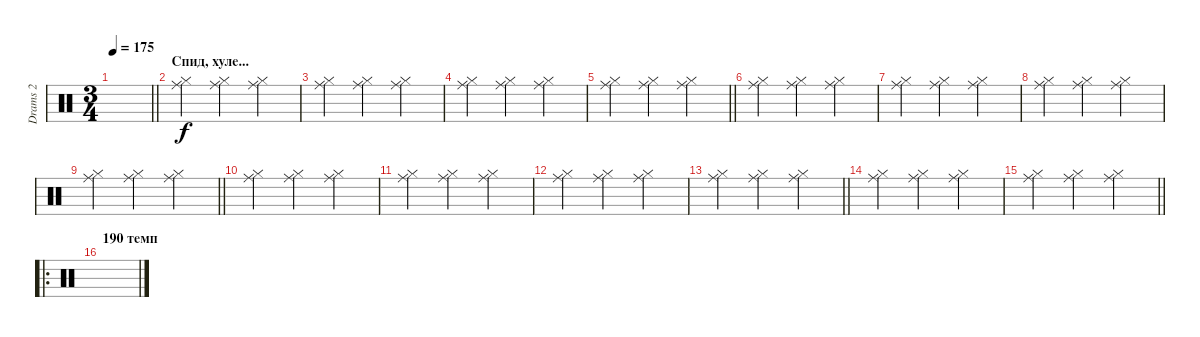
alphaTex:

\track ("Drams 2" "Drams 2") {instrument percussion}
\staff {score}
\articulation defaults
\ts (3 4)
\tempo 175
\clef neutral
\barLineRight lightlight
\ks c
|
\section ("" "Спид, хуле...")
("Ride (middle)" "Hi-Hat (closed)").4 ("Ride (middle)" "Hi-Hat (closed)").4 ("Ride (middle)" "Hi-Hat (closed)").4 |
("Ride (middle)" "Hi-Hat (closed)").4 ("Ride (middle)" "Hi-Hat (closed)").4 ("Ride (middle)" "Hi-Hat (closed)").4 |
("Ride (middle)" "Hi-Hat (closed)").4 ("Ride (middle)" "Hi-Hat (closed)").4 ("Ride (middle)" "Hi-Hat (closed)").4 |
\barLineRight lightlight
("Ride (middle)" "Hi-Hat (closed)").4 ("Ride (middle)" "Hi-Hat (closed)").4 ("Ride (middle)" "Hi-Hat (closed)").4 |
("Ride (middle)" "Hi-Hat (closed)").4 ("Ride (middle)" "Hi-Hat (closed)").4 ("Ride (middle)" "Hi-Hat (closed)").4 |
("Ride (middle)" "Hi-Hat (closed)").4 ("Ride (middle)" "Hi-Hat (closed)").4 ("Ride (middle)" "Hi-Hat (closed)").4 |
("Ride (middle)" "Hi-Hat (closed)").4 ("Ride (middle)" "Hi-Hat (closed)").4 ("Ride (middle)" "Hi-Hat (closed)").4 |
\barLineRight lightlight
("Ride (middle)" "Hi-Hat (closed)").4 ("Ride (middle)" "Hi-Hat (closed)").4 ("Ride (middle)" "Hi-Hat (closed)").4 |
("Ride (middle)" "Hi-Hat (closed)").4 ("Ride (middle)" "Hi-Hat (closed)").4 ("Ride (middle)" "Hi-Hat (closed)").4 |
("Ride (middle)" "Hi-Hat (closed)").4 ("Ride (middle)" "Hi-Hat (closed)").4 ("Ride (middle)" "Hi-Hat (closed)").4 |
("Ride (middle)" "Hi-Hat (closed)").4 ("Ride (middle)" "Hi-Hat (closed)").4 ("Ride (middle)" "Hi-Hat (closed)").4 |
\barLineRight lightlight
("Ride (middle)" "Hi-Hat (closed)").4 ("Ride (middle)" "Hi-Hat (closed)").4 ("Ride (middle)" "Hi-Hat (closed)").4 |
("Ride (middle)" "Hi-Hat (closed)").4 ("Ride (middle)" "Hi-Hat (closed)").4 ("Ride (middle)" "Hi-Hat (closed)").4 |
\barLineRight lightlight
("Ride (middle)" "Hi-Hat (closed)").4 ("Ride (middle)" "Hi-Hat (closed)").4 ("Ride (middle)" "Hi-Hat (closed)").4 |
\ro
\section ("" "190 темп")
